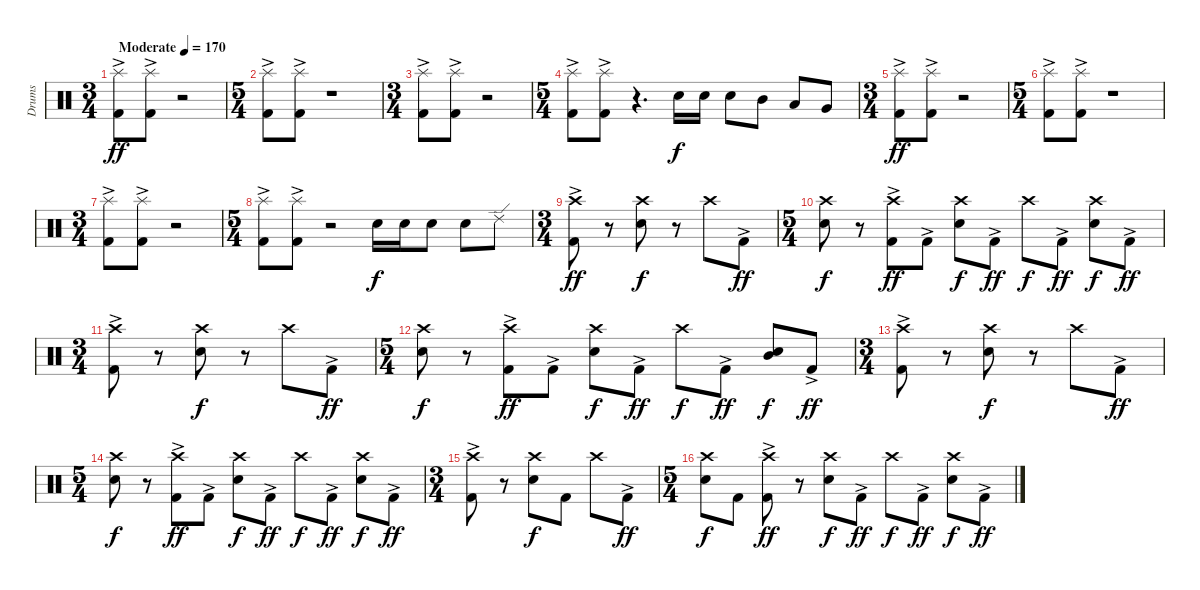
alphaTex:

\track ("Drums" "Drums") {instrument percussion}
\staff {score}
\articulation defaults
\ts (3 4)
\tempo (170 "Moderate")
\clef neutral
\ks c
("Splash (hit)" "Kick (hit) 2"{ac}).8{dy ff} ("Splash (hit)" "Kick (hit) 2"{ac}).8 r.2 |
\ts (5 4)
("Splash (hit)" "Kick (hit) 2"{ac}).8 ("Splash (hit)" "Kick (hit) 2"{ac}).8 r.1 |
\ts (3 4)
("Splash (hit)" "Kick (hit) 2"{ac}).8 ("Splash (hit)" "Kick (hit) 2"{ac}).8 r.2 |
\ts (5 4)
("Splash (hit)" "Kick (hit) 2"{ac}).8 ("Splash (hit)" "Kick (hit) 2"{ac}).8 r.4{d} "Electric Snare (hit)".16{dy f} "Electric Snare (hit)".16 "Electric Snare (hit)".8 "Mid Tom (hit)".8 "Low Tom (hit)".8 "Very Low Tom (hit)".8 |
\ts (3 4)
("Splash (hit)" "Kick (hit) 2"{ac}).8{dy ff} ("Splash (hit)" "Kick (hit) 2"{ac}).8 r.2 |
\ts (5 4)
("Splash (hit)" "Kick (hit) 2"{ac}).8 ("Splash (hit)" "Kick (hit) 2"{ac}).8 r.1 |
\ts (3 4)
("Splash (hit)" "Kick (hit) 2"{ac}).8 ("Splash (hit)" "Kick (hit) 2"{ac}).8 r.2 |
\ts (5 4)
("Splash (hit)" "Kick (hit) 2"{ac}).8 ("Splash (hit)" "Kick (hit) 2"{ac}).8 r.2 "Electric Snare (hit)".16{dy f} "Electric Snare (hit)".16 "Electric Snare (hit)".8 "Electric Snare (hit)".8 "Ride (edge) 2".8 |
\ts (3 4)
("Crash high (hit)" "Kick (hit) 2"{ac}).8{dy ff} r.8 ("Crash high (hit)" "Electric Snare (hit)").8{dy f} r.8 "Crash high (hit)".8 "Kick (hit) 2"{ac}.8{dy ff} |
\ts (5 4)
("Crash high (hit)" "Electric Snare (hit)").8{dy f} r.8 ("Crash high (hit)" "Kick (hit) 2"{ac}).8{dy ff} "Kick (hit) 2"{ac}.8 ("Crash high (hit)" "Electric Snare (hit)").8{dy f} "Kick (hit) 2"{ac}.8{dy ff} "Crash high (hit)".8{dy f} "Kick (hit) 2"{ac}.8{dy ff} ("Crash high (hit)" "Electric Snare (hit)").8{dy f} "Kick (hit) 2"{ac}.8{dy ff} |
\ts (3 4)
("Crash high (hit)" "Kick (hit) 2"{ac}).8 r.8 ("Crash high (hit)" "Electric Snare (hit)").8{dy f} r.8 "Crash high (hit)".8 "Kick (hit) 2"{ac}.8{dy ff} |
\ts (5 4)
("Crash high (hit)" "Electric Snare (hit)").8{dy f} r.8 ("Crash high (hit)" "Kick (hit) 2"{ac}).8{dy ff} "Kick (hit) 2"{ac}.8 ("Crash high (hit)" "Electric Snare (hit)").8{dy f} "Kick (hit) 2"{ac}.8{dy ff} "Crash high (hit)".8{dy f} "Kick (hit) 2"{ac}.8{dy ff} ("Mid Tom (hit)" "Electric Snare (hit)").8{dy f} "Kick (hit) 2"{ac}.8{dy ff} |
\ts (3 4)
("Crash high (hit)" "Kick (hit) 2"{ac}).8 r.8 ("Crash high (hit)" "Electric Snare (hit)").8{dy f} r.8 "Crash high (hit)".8 "Kick (hit) 2"{ac}.8{dy ff} |
\ts (5 4)
("Crash high (hit)" "Electric Snare (hit)").8{dy f} r.8 ("Crash high (hit)" "Kick (hit) 2"{ac}).8{dy ff} "Kick (hit) 2"{ac}.8 ("Crash high (hit)" "Electric Snare (hit)").8{dy f} "Kick (hit) 2"{ac}.8{dy ff} "Crash high (hit)".8{dy f} "Kick (hit) 2"{ac}.8{dy ff} ("Crash high (hit)" "Electric Snare (hit)").8{dy f} "Kick (hit) 2"{ac}.8{dy ff} |
\ts (3 4)
("Crash high (hit)" "Kick (hit) 2"{ac}).8 r.8 ("Crash high (hit)" "Electric Snare (hit)").8{dy f} "Kick (hit) 2".8 "Crash high (hit)".8 "Kick (hit) 2"{ac}.8{dy ff} |
\ts (5 4)
("Crash high (hit)" "Electric Snare (hit)").8{dy f} "Kick (hit) 2".8 ("Crash high (hit)" "Kick (hit) 2"{ac}).8{dy ff} r.8 ("Crash high (hit)" "Electric Snare (hit)").8{dy f} "Kick (hit) 2"{ac}.8{dy ff} "Crash high (hit)".8{dy f} "Kick (hit) 2"{ac}.8{dy ff} ("Crash high (hit)" "Electric Snare (hit)").8{dy f} "Kick (hit) 2"{ac}.8{dy ff}
